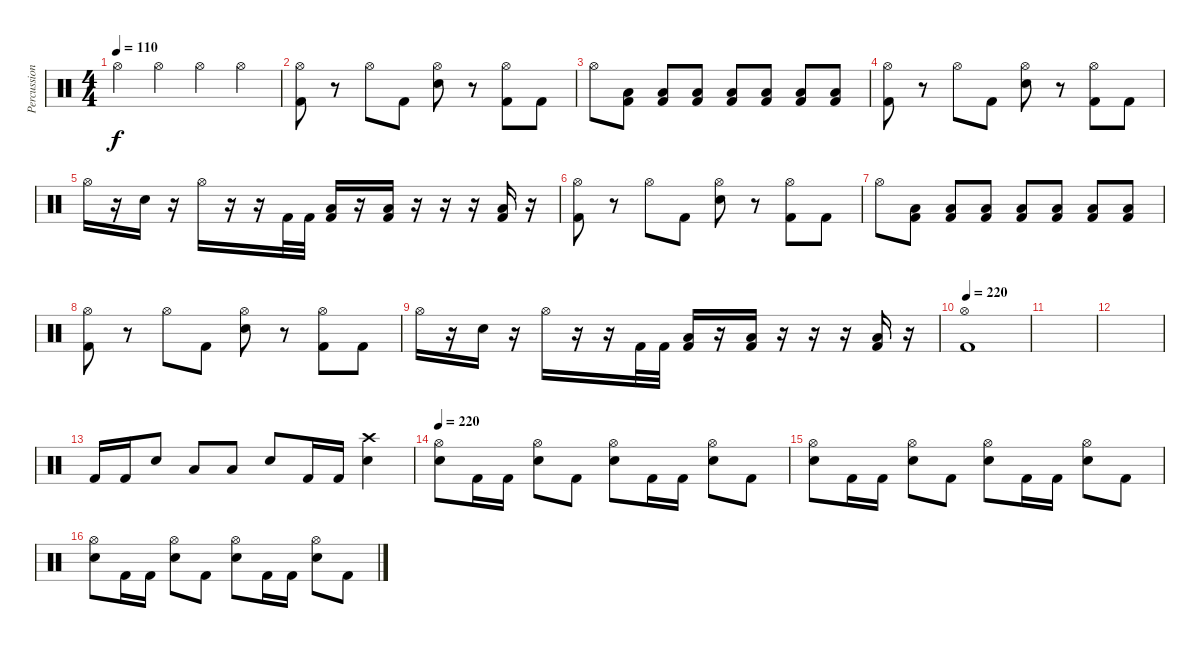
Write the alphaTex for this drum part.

\track ("Percussion" "Percussion") {instrument percussion}
\staff {score}
\articulation defaults
\ts (4 4)
\tempo 110
\clef neutral
\ks c "Hi-Hat (open)".4{dy f} "Hi-Hat (open)".4 "Hi-Hat (open)".4 "Hi-Hat (open)".4
|
("Hi-Hat (open)" "Kick (hit) 2").8 r.8 "Hi-Hat (open)".8 "Kick (hit) 2".8 ("Hi-Hat (open)" "Electric Snare (hit)").8 r.8 ("Hi-Hat (open)" "Kick (hit) 2").8 "Kick (hit) 2".8 |
"Hi-Hat (open)".8 ("Low Tom (hit)" "Kick (hit) 2").8 ("Low Tom (hit)" "Kick (hit) 2").8 ("Low Tom (hit)" "Kick (hit) 2").8 ("Low Tom (hit)" "Kick (hit) 2").8 ("Low Tom (hit)" "Kick (hit) 2").8 ("Low Tom (hit)" "Kick (hit) 2").8 ("Low Tom (hit)" "Kick (hit) 2").8 |
("Hi-Hat (open)" "Kick (hit) 2").8 r.8 "Hi-Hat (open)".8 "Kick (hit) 2".8 ("Hi-Hat (open)" "Electric Snare (hit)").8 r.8 ("Hi-Hat (open)" "Kick (hit) 2").8 "Kick (hit) 2".8 |
"Hi-Hat (open)".16 r.16 "Electric Snare (hit)".16 r.16 "Hi-Hat (open)".16 r.16 r.16 "Kick (hit) 2".32 "Kick (hit) 2".32 ("Low Tom (hit)" "Kick (hit) 2").16 r.16 ("Low Tom (hit)" "Kick (hit) 2").16 r.16 r.16 r.16 ("Low Tom (hit)" "Kick (hit) 2").16 r.16 |
("Hi-Hat (open)" "Kick (hit) 2").8 r.8 "Hi-Hat (open)".8 "Kick (hit) 2".8 ("Hi-Hat (open)" "Electric Snare (hit)").8 r.8 ("Hi-Hat (open)" "Kick (hit) 2").8 "Kick (hit) 2".8 |
"Hi-Hat (open)".8 ("Low Tom (hit)" "Kick (hit) 2").8 ("Low Tom (hit)" "Kick (hit) 2").8 ("Low Tom (hit)" "Kick (hit) 2").8 ("Low Tom (hit)" "Kick (hit) 2").8 ("Low Tom (hit)" "Kick (hit) 2").8 ("Low Tom (hit)" "Kick (hit) 2").8 ("Low Tom (hit)" "Kick (hit) 2").8 |
("Hi-Hat (open)" "Kick (hit) 2").8 r.8 "Hi-Hat (open)".8 "Kick (hit) 2".8 ("Hi-Hat (open)" "Electric Snare (hit)").8 r.8 ("Hi-Hat (open)" "Kick (hit) 2").8 "Kick (hit) 2".8 |
"Hi-Hat (open)".16 r.16 "Electric Snare (hit)".16 r.16 "Hi-Hat (open)".16 r.16 r.16 "Kick (hit) 2".32 "Kick (hit) 2".32 ("Low Tom (hit)" "Kick (hit) 2").16 r.16 ("Low Tom (hit)" "Kick (hit) 2").16 r.16 r.16 r.16 ("Low Tom (hit)" "Kick (hit) 2").16 r.16 |
\tempo 220
("Hi-Hat (open)" "Kick (hit) 2").1 |
|
|
"Kick (hit) 2".16 "Kick (hit) 2".16 "Electric Snare (hit)".8 "Low Tom (hit)".8 "Low Floor Tom (hit)".8 "Electric Snare (hit)".8 "Kick (hit) 2".16 "Kick (hit) 2".16 ("Crash high (hit)" "Electric Snare (hit)").4 |
\tempo 220
("Hi-Hat (open)" "Electric Snare (hit)").8 "Kick (hit) 2".16 "Kick (hit) 2".16 ("Hi-Hat (open)" "Electric Snare (hit)").8 "Kick (hit) 2".8 ("Hi-Hat (open)" "Electric Snare (hit)").8 "Kick (hit) 2".16 "Kick (hit) 2".16 ("Hi-Hat (open)" "Electric Snare (hit)").8 "Kick (hit) 2".8 |
("Hi-Hat (open)" "Electric Snare (hit)").8 "Kick (hit) 2".16 "Kick (hit) 2".16 ("Hi-Hat (open)" "Electric Snare (hit)").8 "Kick (hit) 2".8 ("Hi-Hat (open)" "Electric Snare (hit)").8 "Kick (hit) 2".16 "Kick (hit) 2".16 ("Hi-Hat (open)" "Electric Snare (hit)").8 "Kick (hit) 2".8 |
("Hi-Hat (open)" "Electric Snare (hit)").8 "Kick (hit) 2".16 "Kick (hit) 2".16 ("Hi-Hat (open)" "Electric Snare (hit)").8 "Kick (hit) 2".8 ("Hi-Hat (open)" "Electric Snare (hit)").8 "Kick (hit) 2".16 "Kick (hit) 2".16 ("Hi-Hat (open)" "Electric Snare (hit)").8 "Kick (hit) 2".8
